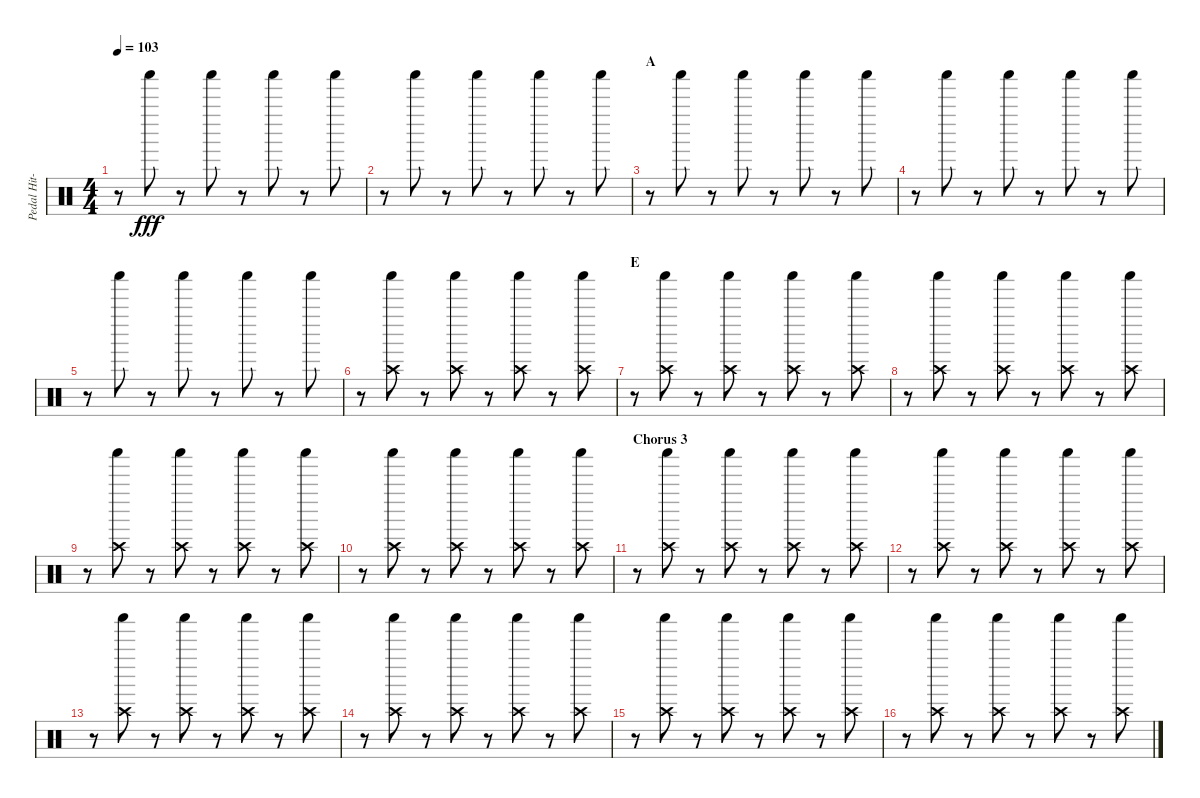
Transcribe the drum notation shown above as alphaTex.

\track ("Pedal Hit-Hat" "Pedal Hit-") {instrument percussion}
\staff {score}
\articulation defaults
\ts (4 4)
\tempo 103
\clef neutral
\ks c
r.8{dy fff} "Shaker (hit)".8 r.8 "Shaker (hit)".8 r.8 "Shaker (hit)".8 r.8 "Shaker (hit)".8 |
r.8 "Shaker (hit)".8 r.8 "Shaker (hit)".8 r.8 "Shaker (hit)".8 r.8 "Shaker (hit)".8 |
\section ("" "A")
r.8 "Shaker (hit)".8 r.8 "Shaker (hit)".8 r.8 "Shaker (hit)".8 r.8 "Shaker (hit)".8 |
r.8 "Shaker (hit)".8 r.8 "Shaker (hit)".8 r.8 "Shaker (hit)".8 r.8 "Shaker (hit)".8 |
r.8 "Shaker (hit)".8 r.8 "Shaker (hit)".8 r.8 "Shaker (hit)".8 r.8 "Shaker (hit)".8 |
r.8 ("Crash high (hit)" "Shaker (hit)").8 r.8 ("Crash high (hit)" "Shaker (hit)").8 r.8 ("Crash high (hit)" "Shaker (hit)").8 r.8 ("Crash high (hit)" "Shaker (hit)").8 |
\section ("" "E")
r.8 ("Crash high (hit)" "Shaker (hit)").8 r.8 ("Crash high (hit)" "Shaker (hit)").8 r.8 ("Crash high (hit)" "Shaker (hit)").8 r.8 ("Crash high (hit)" "Shaker (hit)").8 |
r.8 ("Crash high (hit)" "Shaker (hit)").8 r.8 ("Crash high (hit)" "Shaker (hit)").8 r.8 ("Crash high (hit)" "Shaker (hit)").8 r.8 ("Crash high (hit)" "Shaker (hit)").8 |
r.8 ("Crash high (hit)" "Shaker (hit)").8 r.8 ("Crash high (hit)" "Shaker (hit)").8 r.8 ("Crash high (hit)" "Shaker (hit)").8 r.8 ("Crash high (hit)" "Shaker (hit)").8 |
r.8 ("Crash high (hit)" "Shaker (hit)").8 r.8 ("Crash high (hit)" "Shaker (hit)").8 r.8 ("Crash high (hit)" "Shaker (hit)").8 r.8 ("Crash high (hit)" "Shaker (hit)").8 |
\section ("" "Chorus 3")
r.8 ("Crash high (hit)" "Shaker (hit)").8 r.8 ("Crash high (hit)" "Shaker (hit)").8 r.8 ("Crash high (hit)" "Shaker (hit)").8 r.8 ("Crash high (hit)" "Shaker (hit)").8 |
r.8 ("Crash high (hit)" "Shaker (hit)").8 r.8 ("Crash high (hit)" "Shaker (hit)").8 r.8 ("Crash high (hit)" "Shaker (hit)").8 r.8 ("Crash high (hit)" "Shaker (hit)").8 |
r.8 ("Crash high (hit)" "Shaker (hit)").8 r.8 ("Crash high (hit)" "Shaker (hit)").8 r.8 ("Crash high (hit)" "Shaker (hit)").8 r.8 ("Crash high (hit)" "Shaker (hit)").8 |
r.8 ("Crash high (hit)" "Shaker (hit)").8 r.8 ("Crash high (hit)" "Shaker (hit)").8 r.8 ("Crash high (hit)" "Shaker (hit)").8 r.8 ("Crash high (hit)" "Shaker (hit)").8 |
r.8 ("Crash high (hit)" "Shaker (hit)").8 r.8 ("Crash high (hit)" "Shaker (hit)").8 r.8 ("Crash high (hit)" "Shaker (hit)").8 r.8 ("Crash high (hit)" "Shaker (hit)").8 |
r.8 ("Crash high (hit)" "Shaker (hit)").8 r.8 ("Crash high (hit)" "Shaker (hit)").8 r.8 ("Crash high (hit)" "Shaker (hit)").8 r.8 ("Crash high (hit)" "Shaker (hit)").8
